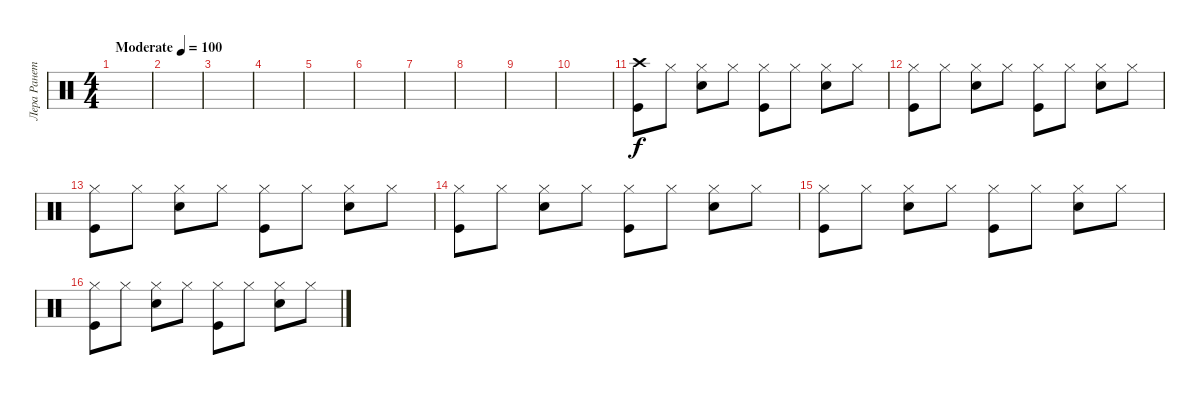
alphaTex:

\track ("Лера Ранетка" "Лера Ранет") {instrument percussion}
\staff {score}
\articulation defaults
\ts (4 4)
\tempo (100 "Moderate")
\clef neutral
\ks c
|
|
|
|
|
|
|
|
|
|
("Crash high (hit)" "Kick (hit)").8 "Hi-Hat (closed)".8 ("Hi-Hat (closed)" "Electric Snare (hit)").8 "Hi-Hat (closed)".8 ("Hi-Hat (closed)" "Kick (hit)").8 "Hi-Hat (closed)".8 ("Hi-Hat (closed)" "Electric Snare (hit)").8 "Hi-Hat (closed)".8 |
("Hi-Hat (closed)" "Kick (hit)").8 "Hi-Hat (closed)".8 ("Hi-Hat (closed)" "Electric Snare (hit)").8 "Hi-Hat (closed)".8 ("Hi-Hat (closed)" "Kick (hit)").8 "Hi-Hat (closed)".8 ("Hi-Hat (closed)" "Electric Snare (hit)").8 "Hi-Hat (closed)".8 |
("Hi-Hat (closed)" "Kick (hit)").8 "Hi-Hat (closed)".8 ("Hi-Hat (closed)" "Electric Snare (hit)").8 "Hi-Hat (closed)".8 ("Hi-Hat (closed)" "Kick (hit)").8 "Hi-Hat (closed)".8 ("Hi-Hat (closed)" "Electric Snare (hit)").8 "Hi-Hat (closed)".8 |
("Hi-Hat (closed)" "Kick (hit)").8 "Hi-Hat (closed)".8 ("Hi-Hat (closed)" "Electric Snare (hit)").8 "Hi-Hat (closed)".8 ("Hi-Hat (closed)" "Kick (hit)").8 "Hi-Hat (closed)".8 ("Hi-Hat (closed)" "Electric Snare (hit)").8 "Hi-Hat (closed)".8 |
("Hi-Hat (closed)" "Kick (hit)").8 "Hi-Hat (closed)".8 ("Hi-Hat (closed)" "Electric Snare (hit)").8 "Hi-Hat (closed)".8 ("Hi-Hat (closed)" "Kick (hit)").8 "Hi-Hat (closed)".8 ("Hi-Hat (closed)" "Electric Snare (hit)").8 "Hi-Hat (closed)".8 |
("Hi-Hat (closed)" "Kick (hit)").8 "Hi-Hat (closed)".8 ("Hi-Hat (closed)" "Electric Snare (hit)").8 "Hi-Hat (closed)".8 ("Hi-Hat (closed)" "Kick (hit)").8 "Hi-Hat (closed)".8 ("Hi-Hat (closed)" "Electric Snare (hit)").8 "Hi-Hat (closed)".8
